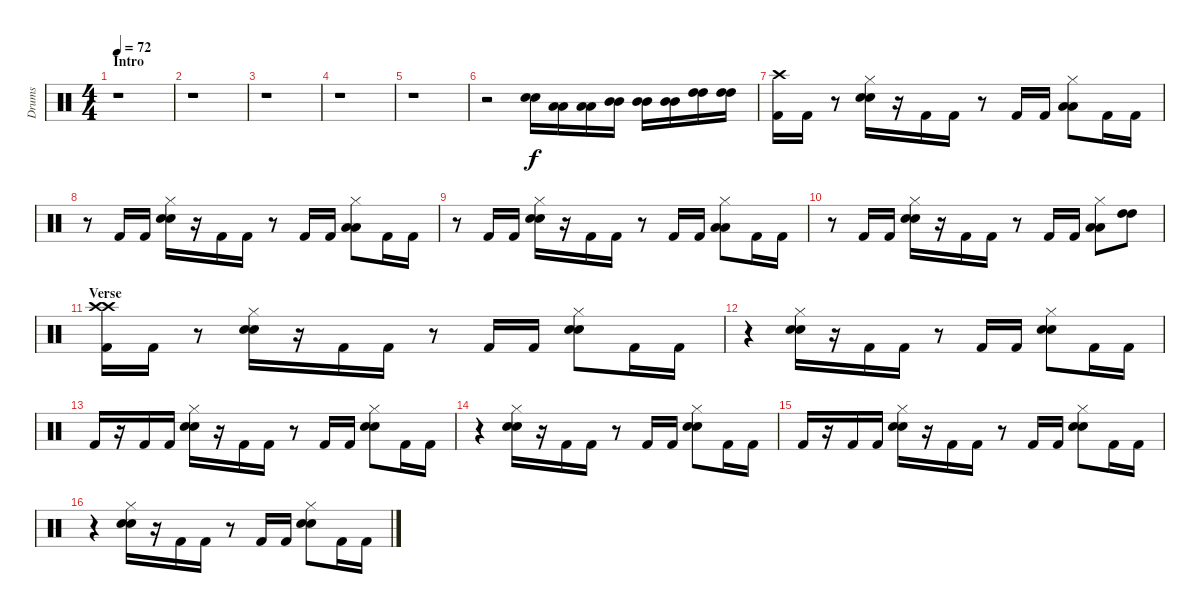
\track ("Drums" "Drums") {instrument percussion}
\staff {score}
\articulation defaults
\ts (4 4)
\section ("" "Intro")
\tempo 72
\clef neutral
\ks c
r.1{dy f} |
r.1 |
r.1 |
r.1 |
r.1 |
r.2 ("Electric Snare (hit)" "Electric Snare (hit)").16 ("Low Tom (hit)" "Low Tom (hit)").16 ("Low Tom (hit)" "Low Tom (hit)").16 ("Mid Tom (hit)" "Mid Tom (hit)").16 ("Mid Tom (hit)" "Mid Tom (hit)").16 ("Mid Tom (hit)" "Mid Tom (hit)").16 ("High Tom (hit)" "High Tom (hit)").16 ("High Tom (hit)" "High Tom (hit)").16 |
("Crash high (hit)" "Kick (hit) 2").16 "Kick (hit) 2".16 r.8 ("Hi-Hat (closed)" "Electric Snare (hit)" "Electric Snare (hit)").16 r.16 "Kick (hit) 2".16 "Kick (hit) 2".16 r.8 "Kick (hit) 2".16 "Kick (hit) 2".16 ("Hi-Hat (closed)" "Low Tom (hit)" "Low Tom (hit)").8 "Kick (hit) 2".16 "Kick (hit) 2".16 |
r.8 "Kick (hit) 2".16 "Kick (hit) 2".16 ("Hi-Hat (closed)" "Electric Snare (hit)" "Electric Snare (hit)").16 r.16 "Kick (hit) 2".16 "Kick (hit) 2".16 r.8 "Kick (hit) 2".16 "Kick (hit) 2".16 ("Hi-Hat (closed)" "Low Tom (hit)" "Low Tom (hit)").8 "Kick (hit) 2".16 "Kick (hit) 2".16 |
r.8 "Kick (hit) 2".16 "Kick (hit) 2".16 ("Hi-Hat (closed)" "Electric Snare (hit)" "Electric Snare (hit)").16 r.16 "Kick (hit) 2".16 "Kick (hit) 2".16 r.8 "Kick (hit) 2".16 "Kick (hit) 2".16 ("Hi-Hat (closed)" "Low Tom (hit)" "Low Tom (hit)").8 "Kick (hit) 2".16 "Kick (hit) 2".16 |
r.8 "Kick (hit) 2".16 "Kick (hit) 2".16 ("Hi-Hat (closed)" "Electric Snare (hit)" "Electric Snare (hit)").16 r.16 "Kick (hit) 2".16 "Kick (hit) 2".16 r.8 "Kick (hit) 2".16 "Kick (hit) 2".16 ("Hi-Hat (closed)" "Low Tom (hit)" "Low Tom (hit)").8 ("High Tom (hit)" "High Tom (hit)").8 |
\section ("" "Verse")
("Crash high (hit)" "Crash high (hit)" "Kick (hit) 2").16 "Kick (hit) 2".16 r.8 ("Hi-Hat (closed)" "Electric Snare (hit)" "Electric Snare (hit)").16 r.16 "Kick (hit) 2".16 "Kick (hit) 2".16 r.8 "Kick (hit) 2".16 "Kick (hit) 2".16 ("Hi-Hat (closed)" "Electric Snare (hit)" "Electric Snare (hit)").8 "Kick (hit) 2".16 "Kick (hit) 2".16 |
r.4 ("Hi-Hat (closed)" "Electric Snare (hit)" "Electric Snare (hit)").16 r.16 "Kick (hit) 2".16 "Kick (hit) 2".16 r.8 "Kick (hit) 2".16 "Kick (hit) 2".16 ("Hi-Hat (closed)" "Electric Snare (hit)" "Electric Snare (hit)").8 "Kick (hit) 2".16 "Kick (hit) 2".16 |
"Kick (hit) 2".16 r.16 "Kick (hit) 2".16 "Kick (hit) 2".16 ("Hi-Hat (closed)" "Electric Snare (hit)" "Electric Snare (hit)").16 r.16 "Kick (hit) 2".16 "Kick (hit) 2".16 r.8 "Kick (hit) 2".16 "Kick (hit) 2".16 ("Hi-Hat (closed)" "Electric Snare (hit)" "Electric Snare (hit)").8 "Kick (hit) 2".16 "Kick (hit) 2".16 |
r.4 ("Hi-Hat (closed)" "Electric Snare (hit)" "Electric Snare (hit)").16 r.16 "Kick (hit) 2".16 "Kick (hit) 2".16 r.8 "Kick (hit) 2".16 "Kick (hit) 2".16 ("Hi-Hat (closed)" "Electric Snare (hit)" "Electric Snare (hit)").8 "Kick (hit) 2".16 "Kick (hit) 2".16 |
"Kick (hit) 2".16 r.16 "Kick (hit) 2".16 "Kick (hit) 2".16 ("Hi-Hat (closed)" "Electric Snare (hit)" "Electric Snare (hit)").16 r.16 "Kick (hit) 2".16 "Kick (hit) 2".16 r.8 "Kick (hit) 2".16 "Kick (hit) 2".16 ("Hi-Hat (closed)" "Electric Snare (hit)" "Electric Snare (hit)").8 "Kick (hit) 2".16 "Kick (hit) 2".16 |
r.4 ("Hi-Hat (closed)" "Electric Snare (hit)" "Electric Snare (hit)").16 r.16 "Kick (hit) 2".16 "Kick (hit) 2".16 r.8 "Kick (hit) 2".16 "Kick (hit) 2".16 ("Hi-Hat (closed)" "Electric Snare (hit)" "Electric Snare (hit)").8 "Kick (hit) 2".16 "Kick (hit) 2".16
